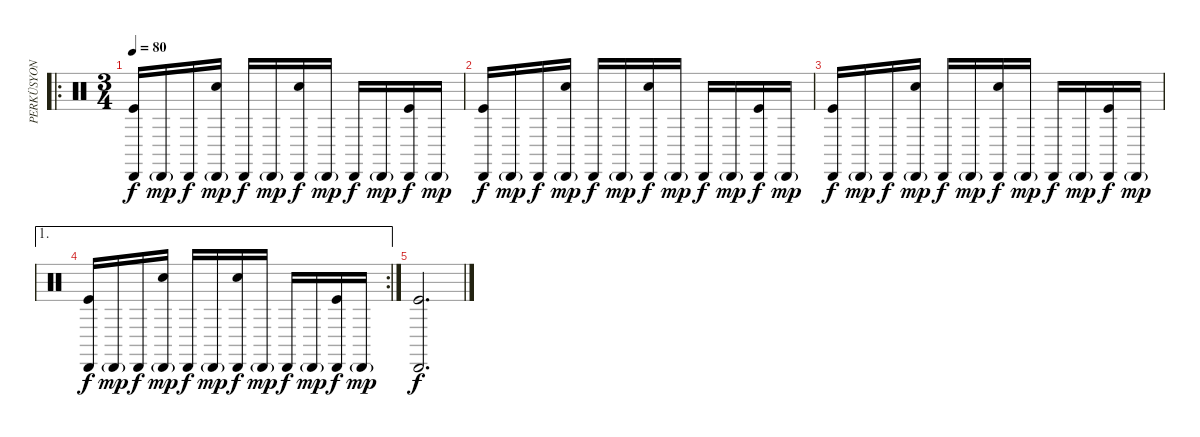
\track ("PERKÜSYON" "PERKÜSYON") {instrument percussion}
\staff {score}
\articulation defaults
\ro
\ts (3 4)
\tempo 80
\clef neutral
\ks c
("Cabasa (hit)" "Kick (hit)").16{dy f} "Cabasa (hit)"{g}.16{dy mp} "Cabasa (hit)".16{dy f} ("Cabasa (hit)"{g} "Electric Snare (hit)").16{dy mp} "Cabasa (hit)".16{dy f} "Cabasa (hit)"{g}.16{dy mp} ("Cabasa (hit)" "Electric Snare (hit)").16{dy f} "Cabasa (hit)"{g}.16{dy mp} "Cabasa (hit)".16{dy f} "Cabasa (hit)"{g}.16{dy mp} ("Cabasa (hit)" "Kick (hit)").16{dy f} "Cabasa (hit)"{g}.16{dy mp} |
("Cabasa (hit)" "Kick (hit)").16{dy f} "Cabasa (hit)"{g}.16{dy mp} "Cabasa (hit)".16{dy f} ("Cabasa (hit)"{g} "Electric Snare (hit)").16{dy mp} "Cabasa (hit)".16{dy f} "Cabasa (hit)"{g}.16{dy mp} ("Cabasa (hit)" "Electric Snare (hit)").16{dy f} "Cabasa (hit)"{g}.16{dy mp} "Cabasa (hit)".16{dy f} "Cabasa (hit)"{g}.16{dy mp} ("Cabasa (hit)" "Kick (hit)").16{dy f} "Cabasa (hit)"{g}.16{dy mp} |
("Cabasa (hit)" "Kick (hit)").16{dy f} "Cabasa (hit)"{g}.16{dy mp} "Cabasa (hit)".16{dy f} ("Cabasa (hit)"{g} "Electric Snare (hit)").16{dy mp} "Cabasa (hit)".16{dy f} "Cabasa (hit)"{g}.16{dy mp} ("Cabasa (hit)" "Electric Snare (hit)").16{dy f} "Cabasa (hit)"{g}.16{dy mp} "Cabasa (hit)".16{dy f} "Cabasa (hit)"{g}.16{dy mp} ("Cabasa (hit)" "Kick (hit)").16{dy f} "Cabasa (hit)"{g}.16{dy mp} |
\ae 1
\rc 2
("Cabasa (hit)" "Kick (hit)").16{dy f} "Cabasa (hit)"{g}.16{dy mp} "Cabasa (hit)".16{dy f} ("Cabasa (hit)"{g} "Electric Snare (hit)").16{dy mp} "Cabasa (hit)".16{dy f} "Cabasa (hit)"{g}.16{dy mp} ("Cabasa (hit)" "Electric Snare (hit)").16{dy f} "Cabasa (hit)"{g}.16{dy mp} "Cabasa (hit)".16{dy f} "Cabasa (hit)"{g}.16{dy mp} ("Cabasa (hit)" "Kick (hit)").16{dy f} "Cabasa (hit)"{g}.16{dy mp} |
("Cabasa (hit)" "Kick (hit)").2{d dy f}
